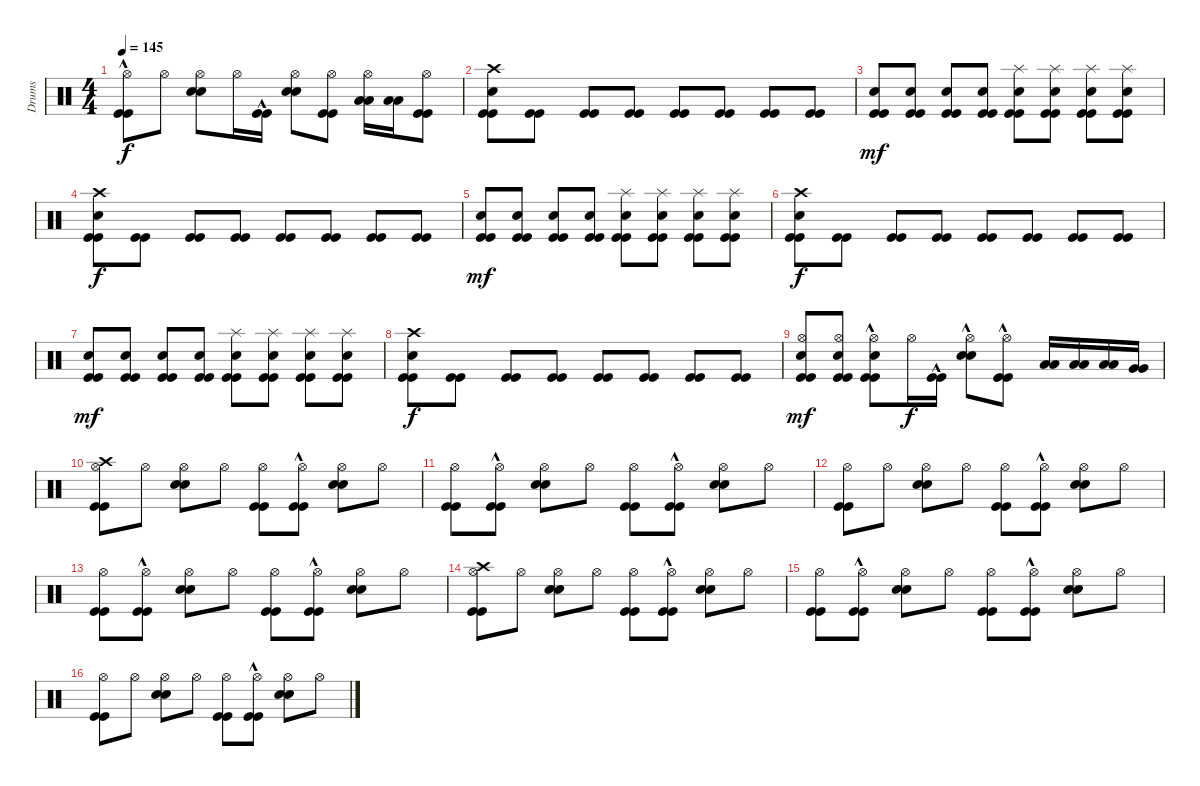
\track ("Drums" "Drums") {instrument percussion}
\staff {score}
\articulation defaults
\ts (4 4)
\tempo 145
\clef neutral
\ks c
("Kick (hit)"{hac} "Kick (hit)"{hac} "Hi-Hat (open)").8{dy f} "Hi-Hat (open)".8 ("Snare (hit) 2" "Snare (hit) 2" "Hi-Hat (open)").8 "Hi-Hat (open)".16 ("Kick (hit)"{hac} "Kick (hit)"{hac}).16 ("Snare (hit) 2" "Snare (hit) 2" "Hi-Hat (open)").8 ("Kick (hit)" "Kick (hit)" "Hi-Hat (open)").8 ("Low Tom (hit)" "Low Tom (hit)" "Hi-Hat (open)").16 ("Low Tom (hit)" "Low Tom (hit)").16 ("Kick (hit)" "Kick (hit)" "Hi-Hat (open)").8 |
("Kick (hit)" "Kick (hit)" "Snare (hit) 2" "Crash high (hit)").8 ("Kick (hit)" "Kick (hit)").8 ("Kick (hit)" "Kick (hit)").8 ("Kick (hit)" "Kick (hit)").8 ("Kick (hit)" "Kick (hit)").8 ("Kick (hit)" "Kick (hit)").8 ("Kick (hit)" "Kick (hit)").8 ("Kick (hit)" "Kick (hit)").8 |
("Kick (hit)" "Kick (hit)" "Snare (hit) 2").8{dy mf} ("Kick (hit)" "Kick (hit)" "Snare (hit) 2").8 ("Kick (hit)" "Kick (hit)" "Snare (hit) 2").8 ("Kick (hit)" "Kick (hit)" "Snare (hit) 2").8 ("Kick (hit)" "Kick (hit)" "Snare (hit) 2" "Splash (hit)").8 ("Kick (hit)" "Kick (hit)" "Snare (hit) 2" "Splash (hit)").8 ("Kick (hit)" "Kick (hit)" "Snare (hit) 2" "Splash (hit)").8 ("Kick (hit)" "Kick (hit)" "Snare (hit) 2" "Splash (hit)").8 |
("Kick (hit)" "Kick (hit)" "Snare (hit) 2" "Crash high (hit)").8{dy f} ("Kick (hit)" "Kick (hit)").8 ("Kick (hit)" "Kick (hit)").8 ("Kick (hit)" "Kick (hit)").8 ("Kick (hit)" "Kick (hit)").8 ("Kick (hit)" "Kick (hit)").8 ("Kick (hit)" "Kick (hit)").8 ("Kick (hit)" "Kick (hit)").8 |
("Kick (hit)" "Kick (hit)" "Snare (hit) 2").8{dy mf} ("Kick (hit)" "Kick (hit)" "Snare (hit) 2").8 ("Kick (hit)" "Kick (hit)" "Snare (hit) 2").8 ("Kick (hit)" "Kick (hit)" "Snare (hit) 2").8 ("Kick (hit)" "Kick (hit)" "Snare (hit) 2" "Splash (hit)").8 ("Kick (hit)" "Kick (hit)" "Snare (hit) 2" "Splash (hit)").8 ("Kick (hit)" "Kick (hit)" "Snare (hit) 2" "Splash (hit)").8 ("Kick (hit)" "Kick (hit)" "Snare (hit) 2" "Splash (hit)").8 |
("Kick (hit)" "Kick (hit)" "Snare (hit) 2" "Crash high (hit)").8{dy f} ("Kick (hit)" "Kick (hit)").8 ("Kick (hit)" "Kick (hit)").8 ("Kick (hit)" "Kick (hit)").8 ("Kick (hit)" "Kick (hit)").8 ("Kick (hit)" "Kick (hit)").8 ("Kick (hit)" "Kick (hit)").8 ("Kick (hit)" "Kick (hit)").8 |
("Kick (hit)" "Kick (hit)" "Snare (hit) 2").8{dy mf} ("Kick (hit)" "Kick (hit)" "Snare (hit) 2").8 ("Kick (hit)" "Kick (hit)" "Snare (hit) 2").8 ("Kick (hit)" "Kick (hit)" "Snare (hit) 2").8 ("Kick (hit)" "Kick (hit)" "Snare (hit) 2" "Splash (hit)").8 ("Kick (hit)" "Kick (hit)" "Snare (hit) 2" "Splash (hit)").8 ("Kick (hit)" "Kick (hit)" "Snare (hit) 2" "Splash (hit)").8 ("Kick (hit)" "Kick (hit)" "Snare (hit) 2" "Splash (hit)").8 |
("Kick (hit)" "Kick (hit)" "Snare (hit) 2" "Crash high (hit)").8{dy f} ("Kick (hit)" "Kick (hit)").8 ("Kick (hit)" "Kick (hit)").8 ("Kick (hit)" "Kick (hit)").8 ("Kick (hit)" "Kick (hit)").8 ("Kick (hit)" "Kick (hit)").8 ("Kick (hit)" "Kick (hit)").8 ("Kick (hit)" "Kick (hit)").8 |
("Kick (hit)" "Kick (hit)" "Snare (hit) 2" "Hi-Hat (open)").8{dy mf} ("Kick (hit)" "Kick (hit)" "Snare (hit) 2" "Hi-Hat (open)").8 ("Kick (hit)"{hac} "Kick (hit)"{hac} "Snare (hit) 2" "Hi-Hat (open)").8 "Hi-Hat (open)".16{dy f} ("Kick (hit)"{hac} "Kick (hit)"{hac}).16 ("Snare (hit) 2"{hac} "Snare (hit) 2"{hac} "Hi-Hat (open)").8 ("Kick (hit)"{hac} "Kick (hit)"{hac} "Hi-Hat (open)"{hac}).8 ("Low Tom (hit)" "Low Tom (hit)").16 ("Low Tom (hit)" "Low Tom (hit)").16 ("Low Tom (hit)" "Low Tom (hit)").16 ("Very Low Tom (hit)" "Very Low Tom (hit)").16 |
("Kick (hit)" "Kick (hit)" "Hi-Hat (open)" "Crash high (hit)").8 "Hi-Hat (open)".8 ("Snare (hit) 2" "Snare (hit) 2" "Hi-Hat (open)").8 "Hi-Hat (open)".8 ("Kick (hit)" "Kick (hit)" "Hi-Hat (open)").8 ("Kick (hit)"{hac} "Kick (hit)"{hac} "Hi-Hat (open)").8 ("Snare (hit) 2" "Snare (hit) 2" "Hi-Hat (open)").8 "Hi-Hat (open)".8 |
("Kick (hit)" "Kick (hit)" "Hi-Hat (open)").8 ("Kick (hit)"{hac} "Kick (hit)"{hac} "Hi-Hat (open)").8 ("Snare (hit) 2" "Snare (hit) 2" "Hi-Hat (open)").8 "Hi-Hat (open)".8 ("Kick (hit)" "Kick (hit)" "Hi-Hat (open)").8 ("Kick (hit)"{hac} "Kick (hit)"{hac} "Hi-Hat (open)").8 ("Snare (hit) 2" "Snare (hit) 2" "Hi-Hat (open)").8 "Hi-Hat (open)".8 |
("Kick (hit)" "Kick (hit)" "Hi-Hat (open)").8 "Hi-Hat (open)".8 ("Snare (hit) 2" "Snare (hit) 2" "Hi-Hat (open)").8 "Hi-Hat (open)".8 ("Kick (hit)" "Kick (hit)" "Hi-Hat (open)").8 ("Kick (hit)"{hac} "Kick (hit)"{hac} "Hi-Hat (open)").8 ("Snare (hit) 2" "Snare (hit) 2" "Hi-Hat (open)").8 "Hi-Hat (open)".8 |
("Kick (hit)" "Kick (hit)" "Hi-Hat (open)").8 ("Kick (hit)"{hac} "Kick (hit)"{hac} "Hi-Hat (open)").8 ("Snare (hit) 2" "Snare (hit) 2" "Hi-Hat (open)").8 "Hi-Hat (open)".8 ("Kick (hit)" "Kick (hit)" "Hi-Hat (open)").8 ("Kick (hit)"{hac} "Kick (hit)"{hac} "Hi-Hat (open)").8 ("Snare (hit) 2" "Snare (hit) 2" "Hi-Hat (open)").8 "Hi-Hat (open)".8 |
("Kick (hit)" "Kick (hit)" "Hi-Hat (open)" "Crash high (hit)").8 "Hi-Hat (open)".8 ("Snare (hit) 2" "Snare (hit) 2" "Hi-Hat (open)").8 "Hi-Hat (open)".8 ("Kick (hit)" "Kick (hit)" "Hi-Hat (open)").8 ("Kick (hit)"{hac} "Kick (hit)"{hac} "Hi-Hat (open)").8 ("Snare (hit) 2" "Snare (hit) 2" "Hi-Hat (open)").8 "Hi-Hat (open)".8 |
("Kick (hit)" "Kick (hit)" "Hi-Hat (open)").8 ("Kick (hit)"{hac} "Kick (hit)"{hac} "Hi-Hat (open)").8 ("Snare (hit) 2" "Snare (hit) 2" "Hi-Hat (open)").8 "Hi-Hat (open)".8 ("Kick (hit)" "Kick (hit)" "Hi-Hat (open)").8 ("Kick (hit)"{hac} "Kick (hit)"{hac} "Hi-Hat (open)").8 ("Snare (hit) 2" "Snare (hit) 2" "Hi-Hat (open)").8 "Hi-Hat (open)".8 |
("Kick (hit)" "Kick (hit)" "Hi-Hat (open)").8 "Hi-Hat (open)".8 ("Snare (hit) 2" "Snare (hit) 2" "Hi-Hat (open)").8 "Hi-Hat (open)".8 ("Kick (hit)" "Kick (hit)" "Hi-Hat (open)").8 ("Kick (hit)"{hac} "Kick (hit)"{hac} "Hi-Hat (open)").8 ("Snare (hit) 2" "Snare (hit) 2" "Hi-Hat (open)").8 "Hi-Hat (open)".8
